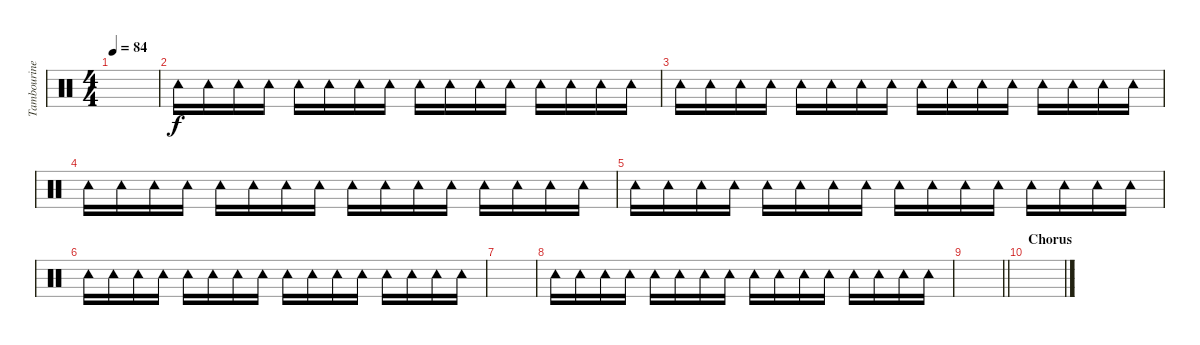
\track ("Tambourine" "Tambourine") {instrument percussion}
\staff {score}
\articulation defaults
\ts (4 4)
\tempo 84
\clef neutral
\ks c
|
"Tambourine (hit)".16 "Tambourine (hit)".16 "Tambourine (hit)".16 "Tambourine (hit)".16 "Tambourine (hit)".16 "Tambourine (hit)".16 "Tambourine (hit)".16 "Tambourine (hit)".16 "Tambourine (hit)".16 "Tambourine (hit)".16 "Tambourine (hit)".16 "Tambourine (hit)".16 "Tambourine (hit)".16 "Tambourine (hit)".16 "Tambourine (hit)".16 "Tambourine (hit)".16 |
"Tambourine (hit)".16 "Tambourine (hit)".16 "Tambourine (hit)".16 "Tambourine (hit)".16 "Tambourine (hit)".16 "Tambourine (hit)".16 "Tambourine (hit)".16 "Tambourine (hit)".16 "Tambourine (hit)".16 "Tambourine (hit)".16 "Tambourine (hit)".16 "Tambourine (hit)".16 "Tambourine (hit)".16 "Tambourine (hit)".16 "Tambourine (hit)".16 "Tambourine (hit)".16 |
"Tambourine (hit)".16 "Tambourine (hit)".16 "Tambourine (hit)".16 "Tambourine (hit)".16 "Tambourine (hit)".16 "Tambourine (hit)".16 "Tambourine (hit)".16 "Tambourine (hit)".16 "Tambourine (hit)".16 "Tambourine (hit)".16 "Tambourine (hit)".16 "Tambourine (hit)".16 "Tambourine (hit)".16 "Tambourine (hit)".16 "Tambourine (hit)".16 "Tambourine (hit)".16 |
"Tambourine (hit)".16 "Tambourine (hit)".16 "Tambourine (hit)".16 "Tambourine (hit)".16 "Tambourine (hit)".16 "Tambourine (hit)".16 "Tambourine (hit)".16 "Tambourine (hit)".16 "Tambourine (hit)".16 "Tambourine (hit)".16 "Tambourine (hit)".16 "Tambourine (hit)".16 "Tambourine (hit)".16 "Tambourine (hit)".16 "Tambourine (hit)".16 "Tambourine (hit)".16 |
"Tambourine (hit)".16 "Tambourine (hit)".16 "Tambourine (hit)".16 "Tambourine (hit)".16 "Tambourine (hit)".16 "Tambourine (hit)".16 "Tambourine (hit)".16 "Tambourine (hit)".16 "Tambourine (hit)".16 "Tambourine (hit)".16 "Tambourine (hit)".16 "Tambourine (hit)".16 "Tambourine (hit)".16 "Tambourine (hit)".16 "Tambourine (hit)".16 "Tambourine (hit)".16 |
|
"Tambourine (hit)".16 "Tambourine (hit)".16 "Tambourine (hit)".16 "Tambourine (hit)".16 "Tambourine (hit)".16 "Tambourine (hit)".16 "Tambourine (hit)".16 "Tambourine (hit)".16 "Tambourine (hit)".16 "Tambourine (hit)".16 "Tambourine (hit)".16 "Tambourine (hit)".16 "Tambourine (hit)".16 "Tambourine (hit)".16 "Tambourine (hit)".16 "Tambourine (hit)".16 |
\barLineRight lightlight
|
\section ("" "Chorus")
